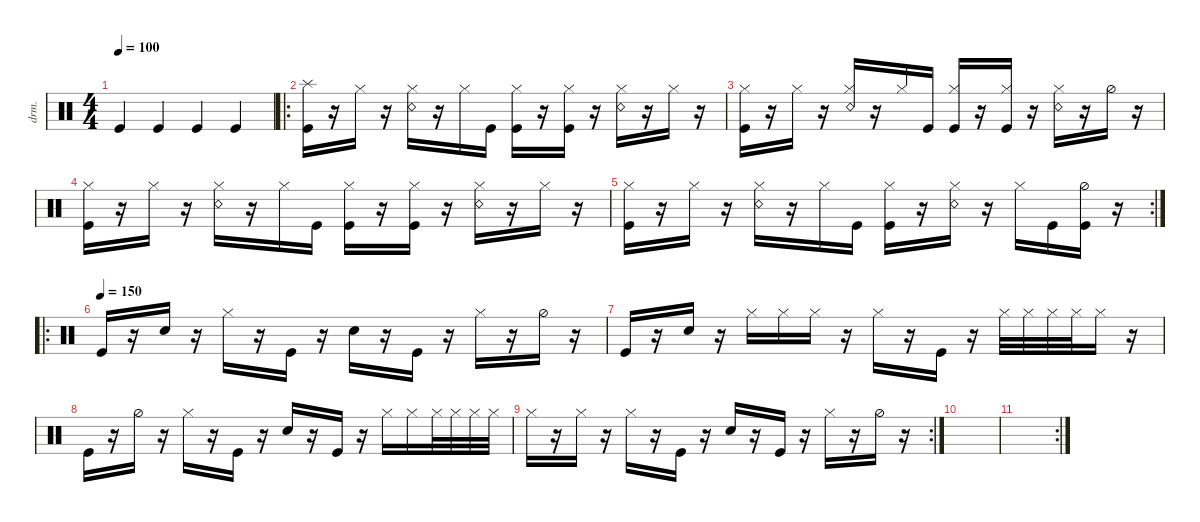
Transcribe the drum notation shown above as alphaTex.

\defaultSystemsLayout 4
\hideDynamics
\bracketExtendMode nobrackets
\track ("Drumkit" "drm.") {instrument percussion}
\staff {score}
\articulation defaults
\ts (4 4)
\tempo 100
\clef neutral
\ks c "Kick (hit)".4{dy mf beam Up} "Kick (hit)".4{beam Up} "Kick (hit)".4{beam Up} "Kick (hit)".4{beam Up}
|
\ro
("Kick (hit)" "Splash (hit)").16{beam Down} r.16{beam Down} "Hi-Hat (closed)".16{beam Down} r.16{beam Down} ("Snare (rim shot)" "Hi-Hat (closed)").16{beam Down} r.16{beam Down} "Hi-Hat (closed)".16{beam Down} "Kick (hit)".16{beam Down} ("Kick (hit)" "Hi-Hat (closed)").16{beam Down} r.16{beam Down} ("Kick (hit)" "Hi-Hat (closed)").16{beam Down} r.16{beam Down} ("Snare (rim shot)" "Hi-Hat (closed)").16{beam Down} r.16{beam Down} "Hi-Hat (closed)".16{beam Down} r.16{beam Down} |
("Kick (hit)" "Hi-Hat (closed)").16{beam Down} r.16{beam Down} "Hi-Hat (closed)".16{beam Down} r.16{beam Down} ("Snare (rim shot)" "Hi-Hat (closed)").16{beam Up} r.16{beam Up} "Hi-Hat (closed)".16{beam Up} "Kick (hit)".16{beam Up} ("Kick (hit)" "Hi-Hat (closed)").16{beam Up} r.16{beam Up} ("Kick (hit)" "Hi-Hat (closed)").16{beam Up} r.16{beam Down} ("Snare (rim shot)" "Hi-Hat (closed)").16{beam Down} r.16{beam Down} "Hi-Hat (half)".16{beam Down} r.16{beam Down} |
("Kick (hit)" "Hi-Hat (closed)").16{beam Down} r.16{beam Down} "Hi-Hat (closed)".16{beam Down} r.16{beam Down} ("Snare (rim shot)" "Hi-Hat (closed)").16{beam Down} r.16{beam Down} "Hi-Hat (closed)".16{beam Down} "Kick (hit)".16{beam Down} ("Kick (hit)" "Hi-Hat (closed)").16{beam Down} r.16{beam Down} ("Kick (hit)" "Hi-Hat (closed)").16{beam Down} r.16{beam Down} ("Snare (rim shot)" "Hi-Hat (closed)").16{beam Down} r.16{beam Down} "Hi-Hat (closed)".16{beam Down} r.16{beam Down} |
\rc 2
("Kick (hit)" "Hi-Hat (closed)").16{beam Down} r.16{beam Down} "Hi-Hat (closed)".16{beam Down} r.16{beam Down} ("Snare (rim shot)" "Hi-Hat (closed)").16{beam Down} r.16{beam Down} "Hi-Hat (closed)".16{beam Down} "Kick (hit)".16{beam Down} ("Hi-Hat (closed)" "Kick (hit)").16{beam Down} r.16{beam Down} ("Hi-Hat (closed)" "Snare (rim shot)").16{beam Down} r.16{beam Down} "Hi-Hat (closed)".16{beam Down} "Kick (hit)".16{beam Down} ("Hi-Hat (half)" "Kick (hit)").16{beam Down} r.16{beam Down} |
\ro
\tempo (150)
"Kick (hit)".16{beam Up} r.16{beam Up} "Snare (hit) 2".16{beam Up} r.16{beam Down} "Hi-Hat (closed)".16{beam Down} r.16{beam Down} "Kick (hit)".16{beam Down} r.16{beam Down} "Snare (hit) 2".16{beam Down} r.16{beam Down} "Kick (hit)".16{beam Down} r.16{beam Down} "Hi-Hat (closed)".16{beam Down} r.16{beam Down} "Hi-Hat (half)".16{beam Down} r.16{beam Down} |
"Kick (hit)".16{beam Up} r.16{beam Up} "Snare (hit) 2".16{beam Up} r.16{beam Down} "Hi-Hat (closed)".16{beam Down} "Hi-Hat (closed)".16{beam Down} "Hi-Hat (closed)".16{beam Down} r.16{beam Down} "Hi-Hat (closed)".16{beam Down} r.16{beam Down} "Kick (hit)".16{beam Down} r.16{beam Down} "Hi-Hat (closed)".32{beam Down} "Hi-Hat (closed)".32{beam Down} "Hi-Hat (closed)".32{beam Down} "Hi-Hat (closed)".32{beam Down} "Hi-Hat (closed)".16{beam Down} r.16{beam Down} |
"Kick (hit)".16{beam Down} r.16{beam Down} "Hi-Hat (half)".16{beam Down} r.16{beam Down} "Hi-Hat (closed)".16{beam Down} r.16{beam Down} "Kick (hit)".16{beam Down} r.16{beam Down} "Snare (hit) 2".16{beam Up} r.16{beam Up} "Kick (hit)".16{beam Up} r.16{beam Down} "Hi-Hat (closed)".16{beam Down} "Hi-Hat (closed)".16{beam Down} "Hi-Hat (closed)".32{beam Down} "Hi-Hat (closed)".32{beam Down} "Hi-Hat (closed)".32{beam Down} "Hi-Hat (closed)".32{beam Down} |
\rc 2 "Hi-Hat (closed)".16{beam Down}
r.16{beam Down} "Hi-Hat (closed)".16{beam Down} r.16{beam Down} "Hi-Hat (closed)".16{beam Down} r.16{beam Down} "Kick (hit)".16{beam Down} r.16{beam Down} "Snare (hit) 2".16{beam Up} r.16{beam Up} "Kick (hit)".16{beam Up} r.16{beam Down} "Hi-Hat (closed)".16{beam Down} r.16{beam Down} "Hi-Hat (half)".16{beam Down} r.16{beam Down} |
|
\rc 2
